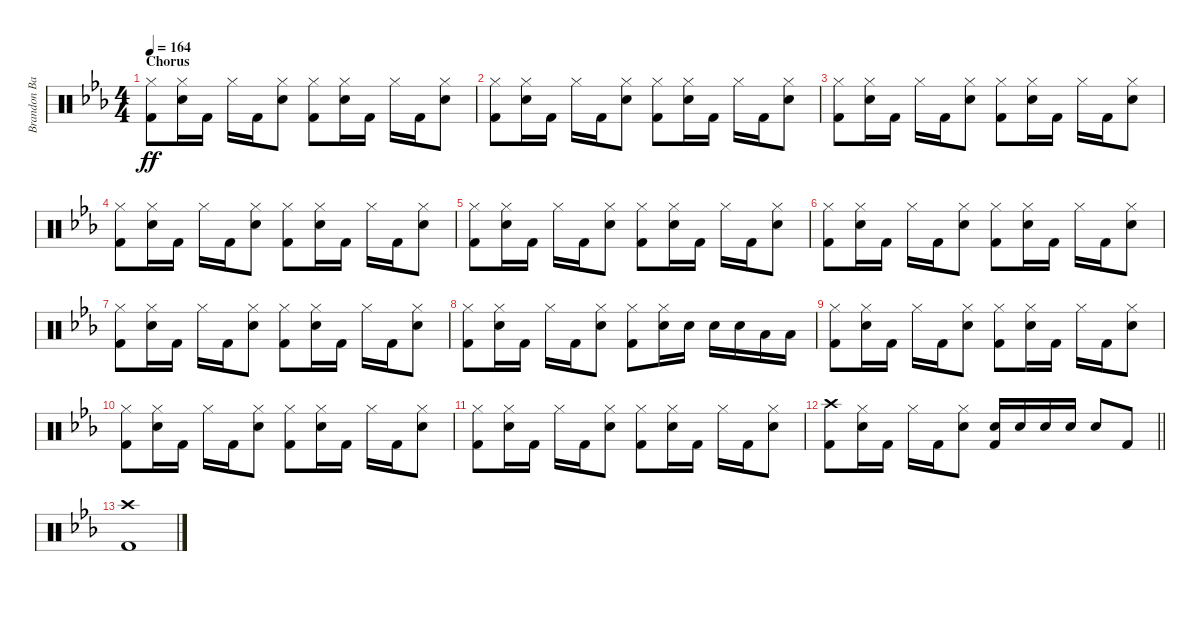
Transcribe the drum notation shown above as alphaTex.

\track ("Brandon Barnes - Drums" "Brandon Ba") {instrument percussion}
\staff {score}
\articulation defaults
\ts (4 4)
\section ("" "Chorus")
\tempo 164
\clef neutral
\ks eb
("Kick (hit) 2" "Hi-Hat (closed)").8{dy ff} ("Electric Snare (hit)" "Hi-Hat (closed)").16 "Kick (hit) 2".16 "Hi-Hat (closed)".16 "Kick (hit) 2".16 ("Electric Snare (hit)" "Hi-Hat (closed)").8 ("Kick (hit) 2" "Hi-Hat (closed)").8 ("Electric Snare (hit)" "Hi-Hat (closed)").16 "Kick (hit) 2".16 "Hi-Hat (closed)".16 "Kick (hit) 2".16 ("Electric Snare (hit)" "Hi-Hat (closed)").8 |
("Kick (hit) 2" "Hi-Hat (closed)").8 ("Electric Snare (hit)" "Hi-Hat (closed)").16 "Kick (hit) 2".16 "Hi-Hat (closed)".16 "Kick (hit) 2".16 ("Electric Snare (hit)" "Hi-Hat (closed)").8 ("Kick (hit) 2" "Hi-Hat (closed)").8 ("Electric Snare (hit)" "Hi-Hat (closed)").16 "Kick (hit) 2".16 "Hi-Hat (closed)".16 "Kick (hit) 2".16 ("Electric Snare (hit)" "Hi-Hat (closed)").8 |
("Kick (hit) 2" "Hi-Hat (closed)").8 ("Electric Snare (hit)" "Hi-Hat (closed)").16 "Kick (hit) 2".16 "Hi-Hat (closed)".16 "Kick (hit) 2".16 ("Electric Snare (hit)" "Hi-Hat (closed)").8 ("Kick (hit) 2" "Hi-Hat (closed)").8 ("Electric Snare (hit)" "Hi-Hat (closed)").16 "Kick (hit) 2".16 "Hi-Hat (closed)".16 "Kick (hit) 2".16 ("Electric Snare (hit)" "Hi-Hat (closed)").8 |
("Kick (hit) 2" "Hi-Hat (closed)").8 ("Electric Snare (hit)" "Hi-Hat (closed)").16 "Kick (hit) 2".16 "Hi-Hat (closed)".16 "Kick (hit) 2".16 ("Electric Snare (hit)" "Hi-Hat (closed)").8 ("Kick (hit) 2" "Hi-Hat (closed)").8 ("Electric Snare (hit)" "Hi-Hat (closed)").16 "Kick (hit) 2".16 "Hi-Hat (closed)".16 "Kick (hit) 2".16 ("Electric Snare (hit)" "Hi-Hat (closed)").8 |
("Kick (hit) 2" "Hi-Hat (closed)").8 ("Electric Snare (hit)" "Hi-Hat (closed)").16 "Kick (hit) 2".16 "Hi-Hat (closed)".16 "Kick (hit) 2".16 ("Electric Snare (hit)" "Hi-Hat (closed)").8 ("Kick (hit) 2" "Hi-Hat (closed)").8 ("Electric Snare (hit)" "Hi-Hat (closed)").16 "Kick (hit) 2".16 "Hi-Hat (closed)".16 "Kick (hit) 2".16 ("Electric Snare (hit)" "Hi-Hat (closed)").8 |
("Kick (hit) 2" "Hi-Hat (closed)").8 ("Electric Snare (hit)" "Hi-Hat (closed)").16 "Kick (hit) 2".16 "Hi-Hat (closed)".16 "Kick (hit) 2".16 ("Electric Snare (hit)" "Hi-Hat (closed)").8 ("Kick (hit) 2" "Hi-Hat (closed)").8 ("Electric Snare (hit)" "Hi-Hat (closed)").16 "Kick (hit) 2".16 "Hi-Hat (closed)".16 "Kick (hit) 2".16 ("Electric Snare (hit)" "Hi-Hat (closed)").8 |
("Kick (hit) 2" "Hi-Hat (closed)").8 ("Electric Snare (hit)" "Hi-Hat (closed)").16 "Kick (hit) 2".16 "Hi-Hat (closed)".16 "Kick (hit) 2".16 ("Electric Snare (hit)" "Hi-Hat (closed)").8 ("Kick (hit) 2" "Hi-Hat (closed)").8 ("Electric Snare (hit)" "Hi-Hat (closed)").16 "Kick (hit) 2".16 "Hi-Hat (closed)".16 "Kick (hit) 2".16 ("Electric Snare (hit)" "Hi-Hat (closed)").8 |
("Kick (hit) 2" "Hi-Hat (closed)").8 ("Electric Snare (hit)" "Hi-Hat (closed)").16 "Kick (hit) 2".16 "Hi-Hat (closed)".16 "Kick (hit) 2".16 ("Electric Snare (hit)" "Hi-Hat (closed)").8 ("Kick (hit) 2" "Hi-Hat (closed)").8 ("Electric Snare (hit)" "Hi-Hat (closed)").16 "Snare (hit) 2".16 "Snare (hit) 2".16 "Snare (hit) 2".16 "Low Tom (hit)".16 "Low Tom (hit)".16 |
("Kick (hit) 2" "Hi-Hat (closed)").8 ("Electric Snare (hit)" "Hi-Hat (closed)").16 "Kick (hit) 2".16 "Hi-Hat (closed)".16 "Kick (hit) 2".16 ("Electric Snare (hit)" "Hi-Hat (closed)").8 ("Kick (hit) 2" "Hi-Hat (closed)").8 ("Electric Snare (hit)" "Hi-Hat (closed)").16 "Kick (hit) 2".16 "Hi-Hat (closed)".16 "Kick (hit) 2".16 ("Electric Snare (hit)" "Hi-Hat (closed)").8 |
("Kick (hit) 2" "Hi-Hat (closed)").8 ("Electric Snare (hit)" "Hi-Hat (closed)").16 "Kick (hit) 2".16 "Hi-Hat (closed)".16 "Kick (hit) 2".16 ("Electric Snare (hit)" "Hi-Hat (closed)").8 ("Kick (hit) 2" "Hi-Hat (closed)").8 ("Electric Snare (hit)" "Hi-Hat (closed)").16 "Kick (hit) 2".16 "Hi-Hat (closed)".16 "Kick (hit) 2".16 ("Electric Snare (hit)" "Hi-Hat (closed)").8 |
("Kick (hit) 2" "Hi-Hat (closed)").8 ("Electric Snare (hit)" "Hi-Hat (closed)").16 "Kick (hit) 2".16 "Hi-Hat (closed)".16 "Kick (hit) 2".16 ("Electric Snare (hit)" "Hi-Hat (closed)").8 ("Kick (hit) 2" "Hi-Hat (closed)").8 ("Electric Snare (hit)" "Hi-Hat (closed)").16 "Kick (hit) 2".16 "Hi-Hat (closed)".16 "Kick (hit) 2".16 ("Electric Snare (hit)" "Hi-Hat (closed)").8 |
\barLineRight lightlight
("Kick (hit) 2" "Crash high (hit)").8 ("Electric Snare (hit)" "Hi-Hat (closed)").16 "Kick (hit) 2".16 "Hi-Hat (closed)".16 "Kick (hit) 2".16 ("Electric Snare (hit)" "Hi-Hat (closed)").8 ("Electric Snare (hit)" "Kick (hit) 2").16 "Electric Snare (hit)".16 "Electric Snare (hit)".16 "Electric Snare (hit)".16 "Electric Snare (hit)".8 "Kick (hit) 2".8 |
("Crash high (hit)" "Kick (hit) 2").1
